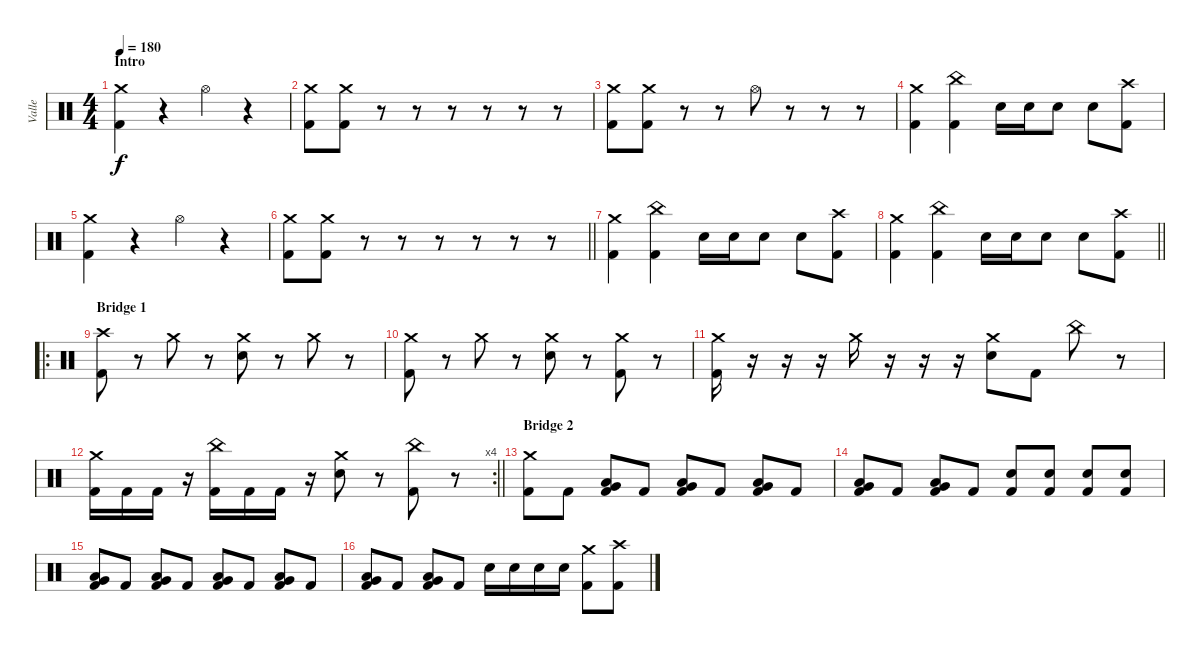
\track ("Valle" "Valle") {instrument percussion}
\staff {score}
\articulation defaults
\ts (4 4)
\section ("" "Intro")
\tempo 180
\clef neutral
\ks c
("Crash medium (hit)" "Kick (hit) 2").4{dy f} r.4 "Hi-Hat (open)".4 r.4 |
("Crash medium (hit)" "Kick (hit) 2").8 ("Crash medium (hit)" "Kick (hit) 2").8 r.8{volume 0} r.8 r.8 r.8 r.8 r.8 |
("Crash medium (hit)" "Kick (hit) 2").8{volume 10} ("Crash medium (hit)" "Kick (hit) 2").8 r.8 r.8 "Hi-Hat (open)".8 r.8 r.8 r.8 |
("Crash medium (hit)" "Kick (hit) 2").4 ("China (hit)" "Kick (hit) 2").4 "Snare (hit) 2".16 "Snare (hit) 2".16 "Snare (hit) 2".8 "Snare (hit) 2".8 ("Crash high (hit)" "Kick (hit) 2").8 |
("Crash medium (hit)" "Kick (hit) 2").4 r.4 "Hi-Hat (open)".4 r.4 |
\barLineRight lightlight
("Crash medium (hit)" "Kick (hit) 2").8 ("Crash medium (hit)" "Kick (hit) 2").8 r.8{volume 0} r.8 r.8 r.8 r.8 r.8 |
\section ("" "")
("Crash medium (hit)" "Kick (hit) 2").4{volume 10} ("China (hit)" "Kick (hit) 2").4 "Snare (hit) 2".16 "Snare (hit) 2".16 "Snare (hit) 2".8 "Snare (hit) 2".8 ("Crash high (hit)" "Kick (hit) 2").8 |
\barLineRight lightlight
("Crash medium (hit)" "Kick (hit) 2").4 ("China (hit)" "Kick (hit) 2").4 "Snare (hit) 2".16 "Snare (hit) 2".16 "Snare (hit) 2".8 "Snare (hit) 2".8 ("Crash high (hit)" "Kick (hit) 2").8 |
\ro
\section ("" "Bridge 1")
("Crash high (hit)" "Kick (hit) 2").8 r.8 "Crash medium (hit)".8 r.8 ("Crash medium (hit)" "Snare (hit) 2").8 r.8 "Crash medium (hit)".8 r.8 |
("Crash medium (hit)" "Kick (hit) 2").8 r.8 "Crash medium (hit)".8 r.8 ("Crash medium (hit)" "Snare (hit) 2").8 r.8 ("Crash medium (hit)" "Kick (hit) 2").8 r.8 |
("Crash medium (hit)" "Kick (hit) 2").16 r.16 r.16 r.16 "Crash medium (hit)".16 r.16 r.16 r.16 ("Crash medium (hit)" "Snare (hit) 2").8 "Kick (hit) 2".8 "China (hit)".8 r.8 |
\rc 4
\barLineRight lightlight
("Crash medium (hit)" "Kick (hit) 2").16 "Kick (hit) 2".16 "Kick (hit) 2".16 r.16 ("China (hit)" "Kick (hit) 2").16 "Kick (hit) 2".16 "Kick (hit) 2".16 r.16 ("Crash medium (hit)" "Snare (hit) 2").8 r.8 ("China (hit)" "Kick (hit) 2").8 r.8 |
\section ("" "Bridge 2")
("Crash medium (hit)" "Kick (hit) 2").8 "Kick (hit) 2".8 ("Very Low Tom (hit)" "Low Floor Tom (hit)" "Kick (hit) 2").8 "Kick (hit) 2".8 ("Very Low Tom (hit)" "Low Floor Tom (hit)" "Kick (hit) 2").8 "Kick (hit) 2".8 ("Very Low Tom (hit)" "Low Floor Tom (hit)" "Kick (hit) 2").8 "Kick (hit) 2".8 |
("Very Low Tom (hit)" "Low Floor Tom (hit)" "Kick (hit) 2").8 "Kick (hit) 2".8 ("Very Low Tom (hit)" "Low Floor Tom (hit)" "Kick (hit) 2").8 "Kick (hit) 2".8 ("Snare (hit) 2" "Kick (hit) 2").8 ("Snare (hit) 2" "Kick (hit) 2").8 ("Snare (hit) 2" "Kick (hit) 2").8 ("Snare (hit) 2" "Kick (hit) 2").8 |
("Very Low Tom (hit)" "Low Floor Tom (hit)" "Kick (hit) 2").8 "Kick (hit) 2".8 ("Very Low Tom (hit)" "Low Floor Tom (hit)" "Kick (hit) 2").8 "Kick (hit) 2".8 ("Very Low Tom (hit)" "Low Floor Tom (hit)" "Kick (hit) 2").8 "Kick (hit) 2".8 ("Very Low Tom (hit)" "Low Floor Tom (hit)" "Kick (hit) 2").8 "Kick (hit) 2".8 |
("Very Low Tom (hit)" "Low Floor Tom (hit)" "Kick (hit) 2").8 "Kick (hit) 2".8 ("Very Low Tom (hit)" "Low Floor Tom (hit)" "Kick (hit) 2").8 "Kick (hit) 2".8 "Snare (hit) 2".16 "Snare (hit) 2".16 "Snare (hit) 2".16 "Snare (hit) 2".16 ("Crash medium (hit)" "Kick (hit) 2").8 ("Crash high (hit)" "Kick (hit) 2").8
